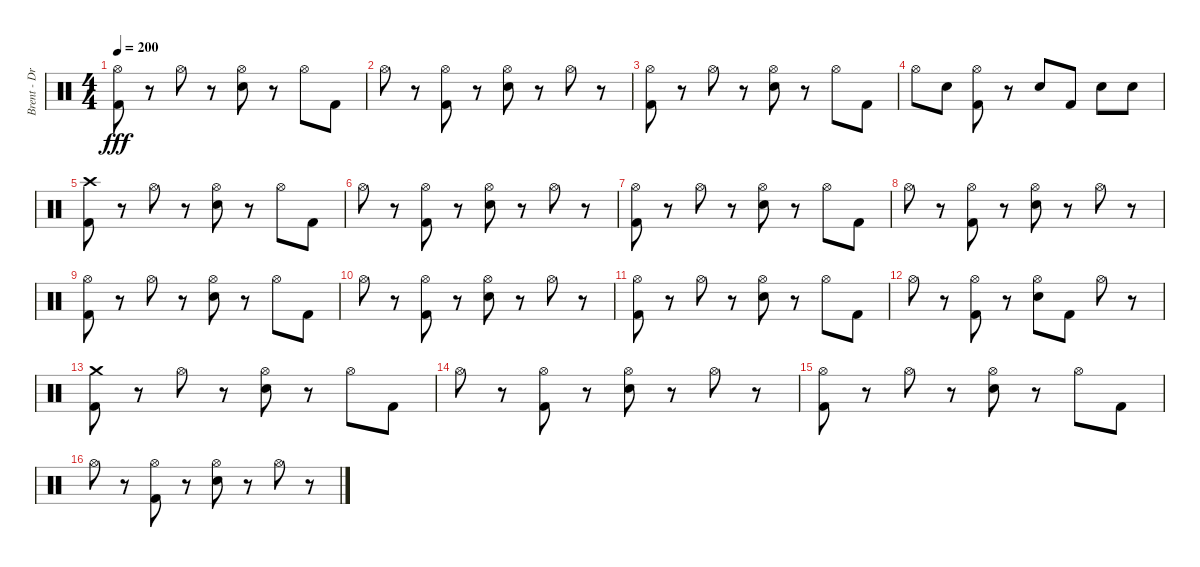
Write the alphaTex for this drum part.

\track ("Brent - Drums" "Brent - Dr") {instrument percussion}
\staff {score}
\articulation defaults
\ts (4 4)
\tempo 200
\clef neutral
\ks c
("Hi-Hat (open)" "Kick (hit) 2").8{dy fff} r.8 "Hi-Hat (open)".8 r.8 ("Hi-Hat (open)" "Snare (hit) 2").8 r.8 "Hi-Hat (open)".8 "Kick (hit) 2".8 |
"Hi-Hat (open)".8 r.8 ("Hi-Hat (open)" "Kick (hit) 2").8 r.8 ("Hi-Hat (open)" "Snare (hit) 2").8 r.8 "Hi-Hat (open)".8 r.8 |
("Hi-Hat (open)" "Kick (hit) 2").8 r.8 "Hi-Hat (open)".8 r.8 ("Hi-Hat (open)" "Snare (hit) 2").8 r.8 "Hi-Hat (open)".8 "Kick (hit) 2".8 |
"Hi-Hat (open)".8 "Snare (hit) 2".8 ("Hi-Hat (open)" "Kick (hit) 2").8 r.8 "Snare (hit) 2".8 "Kick (hit) 2".8 "Snare (hit) 2".8 "Snare (hit) 2".8 |
("Crash high (hit)" "Kick (hit) 2").8 r.8 "Hi-Hat (open)".8 r.8 ("Hi-Hat (open)" "Snare (hit) 2").8 r.8 "Hi-Hat (open)".8 "Kick (hit) 2".8 |
"Hi-Hat (open)".8 r.8 ("Hi-Hat (open)" "Kick (hit) 2").8 r.8 ("Hi-Hat (open)" "Snare (hit) 2").8 r.8 "Hi-Hat (open)".8 r.8 |
("Hi-Hat (open)" "Kick (hit) 2").8 r.8 "Hi-Hat (open)".8 r.8 ("Hi-Hat (open)" "Snare (hit) 2").8 r.8 "Hi-Hat (open)".8 "Kick (hit) 2".8 |
"Hi-Hat (open)".8 r.8 ("Hi-Hat (open)" "Kick (hit) 2").8 r.8 ("Hi-Hat (open)" "Snare (hit) 2").8 r.8 "Hi-Hat (open)".8 r.8 |
("Hi-Hat (open)" "Kick (hit) 2").8 r.8 "Hi-Hat (open)".8 r.8 ("Hi-Hat (open)" "Snare (hit) 2").8 r.8 "Hi-Hat (open)".8 "Kick (hit) 2".8 |
"Hi-Hat (open)".8 r.8 ("Hi-Hat (open)" "Kick (hit) 2").8 r.8 ("Hi-Hat (open)" "Snare (hit) 2").8 r.8 "Hi-Hat (open)".8 r.8 |
("Hi-Hat (open)" "Kick (hit) 2").8 r.8 "Hi-Hat (open)".8 r.8 ("Hi-Hat (open)" "Snare (hit) 2").8 r.8 "Hi-Hat (open)".8 "Kick (hit) 2".8 |
"Hi-Hat (open)".8 r.8 ("Hi-Hat (open)" "Kick (hit) 2").8 r.8 ("Hi-Hat (open)" "Snare (hit) 2").8 "Kick (hit) 2".8 "Hi-Hat (open)".8 r.8 |
("Crash medium (hit)" "Kick (hit) 2").8 r.8 "Hi-Hat (open)".8 r.8 ("Hi-Hat (open)" "Snare (hit) 2").8 r.8 "Hi-Hat (open)".8 "Kick (hit) 2".8 |
"Hi-Hat (open)".8 r.8 ("Hi-Hat (open)" "Kick (hit) 2").8 r.8 ("Hi-Hat (open)" "Snare (hit) 2").8 r.8 "Hi-Hat (open)".8 r.8 |
("Hi-Hat (open)" "Kick (hit) 2").8 r.8 "Hi-Hat (open)".8 r.8 ("Hi-Hat (open)" "Snare (hit) 2").8 r.8 "Hi-Hat (open)".8 "Kick (hit) 2".8 |
"Hi-Hat (open)".8 r.8 ("Hi-Hat (open)" "Kick (hit) 2").8 r.8 ("Hi-Hat (open)" "Snare (hit) 2").8 r.8 "Hi-Hat (open)".8 r.8
